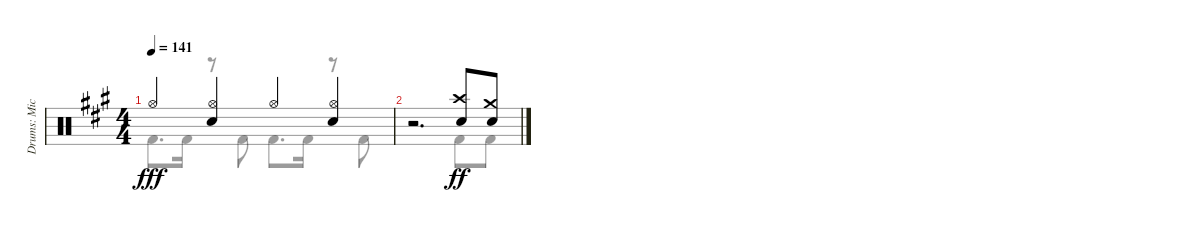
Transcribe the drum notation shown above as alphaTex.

\track ("Drums: Mick" "Drums: Mic") {instrument percussion}
\staff {score}
\articulation defaults
\voice
\ts (4 4)
\tempo 141
\clef neutral
\ks a "Hi-Hat (open)".4{dy fff}
("Hi-Hat (open)" "Snare (hit) 2").4 "Hi-Hat (open)".4 ("Hi-Hat (open)" "Snare (hit) 2").4 |
r.2{d} ("Crash high (hit)" "Snare (hit) 2").8{dy ff} ("Crash medium (hit)" "Snare (hit) 2").8
\voice
\clef neutral
\ottava regular
\simile none
\ks a "Kick (hit) 2".8{d dy fff} "Kick (hit) 2".16
r.8 "Kick (hit) 2".8 "Kick (hit) 2".8{d} "Kick (hit) 2".16 r.8 "Kick (hit) 2".8 |
r.2{d} "Kick (hit) 2".8{dy ff} "Kick (hit) 2".8
